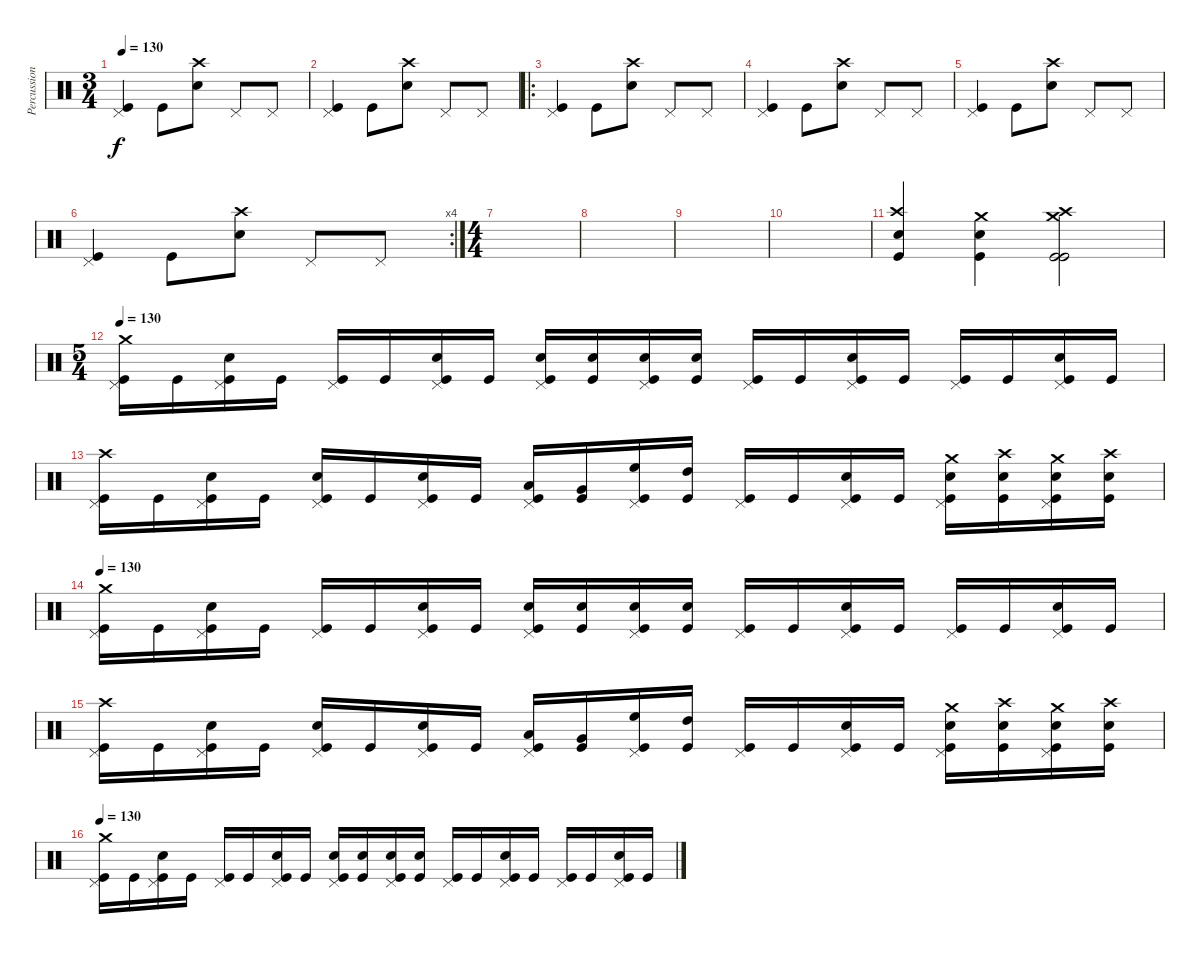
\track ("Percussion" "Percussion") {instrument percussion}
\staff {score}
\articulation defaults
\ts (3 4)
\tempo 130
\clef neutral
\ks c
("Pedal Hi-Hat (hit)" "Kick (hit)").4{dy f} "Kick (hit)".8 ("Crash high (hit)" "Snare (hit) 2").8 "Pedal Hi-Hat (hit)".8 "Pedal Hi-Hat (hit)".8 |
("Pedal Hi-Hat (hit)" "Kick (hit)").4 "Kick (hit)".8 ("Crash high (hit)" "Snare (hit) 2").8 "Pedal Hi-Hat (hit)".8 "Pedal Hi-Hat (hit)".8 |
\ro
("Pedal Hi-Hat (hit)" "Kick (hit)").4 "Kick (hit)".8 ("Crash high (hit)" "Snare (hit) 2").8 "Pedal Hi-Hat (hit)".8 "Pedal Hi-Hat (hit)".8 |
("Pedal Hi-Hat (hit)" "Kick (hit)").4 "Kick (hit)".8 ("Crash high (hit)" "Snare (hit) 2").8 "Pedal Hi-Hat (hit)".8 "Pedal Hi-Hat (hit)".8 |
("Pedal Hi-Hat (hit)" "Kick (hit)").4 "Kick (hit)".8 ("Crash high (hit)" "Snare (hit) 2").8 "Pedal Hi-Hat (hit)".8 "Pedal Hi-Hat (hit)".8 |
\rc 4
("Pedal Hi-Hat (hit)" "Kick (hit)").4 "Kick (hit)".8 ("Crash high (hit)" "Snare (hit) 2").8 "Pedal Hi-Hat (hit)".8 "Pedal Hi-Hat (hit)".8 |
\ts (4 4)
|
|
|
|
("Crash high (hit)" "Snare (hit) 2" "Kick (hit)").4 ("Crash medium (hit)" "Snare (hit) 2" "Kick (hit)").4 ("Crash medium (hit)" "Crash high (hit)" "Kick (hit)" "Kick (hit)").2 |
\ts (5 4)
\tempo 130
("Pedal Hi-Hat (hit)" "Crash medium (hit)" "Kick (hit)").16 "Kick (hit)".16 ("Pedal Hi-Hat (hit)" "Snare (hit) 2" "Kick (hit)").16 "Kick (hit)".16 ("Pedal Hi-Hat (hit)" "Kick (hit)").16 "Kick (hit)".16 ("Pedal Hi-Hat (hit)" "Snare (hit) 2" "Kick (hit)").16 "Kick (hit)".16 ("Pedal Hi-Hat (hit)" "Snare (hit) 2" "Kick (hit)").16 ("Snare (hit) 2" "Kick (hit)").16 ("Pedal Hi-Hat (hit)" "Snare (hit) 2" "Kick (hit)").16 ("Snare (hit) 2" "Kick (hit)").16 ("Pedal Hi-Hat (hit)" "Kick (hit)").16 "Kick (hit)".16 ("Pedal Hi-Hat (hit)" "Snare (hit) 2" "Kick (hit)").16 "Kick (hit)".16 ("Pedal Hi-Hat (hit)" "Kick (hit)").16 "Kick (hit)".16 ("Pedal Hi-Hat (hit)" "Snare (hit) 2" "Kick (hit)").16 "Kick (hit)".16 |
("Crash high (hit)" "Pedal Hi-Hat (hit)" "Kick (hit)").16 "Kick (hit)".16 ("Snare (hit) 2" "Pedal Hi-Hat (hit)" "Kick (hit)").16 "Kick (hit)".16 ("Snare (hit) 2" "Pedal Hi-Hat (hit)" "Kick (hit)").16 "Kick (hit)".16 ("Snare (hit) 2" "Pedal Hi-Hat (hit)" "Kick (hit)").16 "Kick (hit)".16 ("Low Floor Tom (hit)" "Pedal Hi-Hat (hit)" "Kick (hit)").16 ("Very Low Tom (hit)" "Kick (hit)").16 ("High Floor Tom (hit)" "Pedal Hi-Hat (hit)" "Kick (hit)").16 ("High Tom (hit)" "Kick (hit)").16 ("Pedal Hi-Hat (hit)" "Kick (hit)").16 "Kick (hit)".16 ("Snare (hit) 2" "Pedal Hi-Hat (hit)" "Kick (hit)").16 "Kick (hit)".16 ("Crash medium (hit)" "Snare (hit) 2" "Pedal Hi-Hat (hit)" "Kick (hit)").16 ("Crash high (hit)" "Snare (hit) 2" "Kick (hit)").16 ("Crash medium (hit)" "Snare (hit) 2" "Pedal Hi-Hat (hit)" "Kick (hit)").16 ("Crash high (hit)" "Snare (hit) 2" "Kick (hit)").16 |
\tempo 130
("Pedal Hi-Hat (hit)" "Crash medium (hit)" "Kick (hit)").16 "Kick (hit)".16 ("Pedal Hi-Hat (hit)" "Snare (hit) 2" "Kick (hit)").16 "Kick (hit)".16 ("Pedal Hi-Hat (hit)" "Kick (hit)").16 "Kick (hit)".16 ("Pedal Hi-Hat (hit)" "Snare (hit) 2" "Kick (hit)").16 "Kick (hit)".16 ("Pedal Hi-Hat (hit)" "Snare (hit) 2" "Kick (hit)").16 ("Snare (hit) 2" "Kick (hit)").16 ("Pedal Hi-Hat (hit)" "Snare (hit) 2" "Kick (hit)").16 ("Snare (hit) 2" "Kick (hit)").16 ("Pedal Hi-Hat (hit)" "Kick (hit)").16 "Kick (hit)".16 ("Pedal Hi-Hat (hit)" "Snare (hit) 2" "Kick (hit)").16 "Kick (hit)".16 ("Pedal Hi-Hat (hit)" "Kick (hit)").16 "Kick (hit)".16 ("Pedal Hi-Hat (hit)" "Snare (hit) 2" "Kick (hit)").16 "Kick (hit)".16 |
("Crash high (hit)" "Pedal Hi-Hat (hit)" "Kick (hit)").16 "Kick (hit)".16 ("Snare (hit) 2" "Pedal Hi-Hat (hit)" "Kick (hit)").16 "Kick (hit)".16 ("Snare (hit) 2" "Pedal Hi-Hat (hit)" "Kick (hit)").16 "Kick (hit)".16 ("Snare (hit) 2" "Pedal Hi-Hat (hit)" "Kick (hit)").16 "Kick (hit)".16 ("Low Floor Tom (hit)" "Pedal Hi-Hat (hit)" "Kick (hit)").16 ("Very Low Tom (hit)" "Kick (hit)").16 ("High Floor Tom (hit)" "Pedal Hi-Hat (hit)" "Kick (hit)").16 ("High Tom (hit)" "Kick (hit)").16 ("Pedal Hi-Hat (hit)" "Kick (hit)").16 "Kick (hit)".16 ("Snare (hit) 2" "Pedal Hi-Hat (hit)" "Kick (hit)").16 "Kick (hit)".16 ("Crash medium (hit)" "Snare (hit) 2" "Pedal Hi-Hat (hit)" "Kick (hit)").16 ("Crash high (hit)" "Snare (hit) 2" "Kick (hit)").16 ("Crash medium (hit)" "Snare (hit) 2" "Pedal Hi-Hat (hit)" "Kick (hit)").16 ("Crash high (hit)" "Snare (hit) 2" "Kick (hit)").16 |
\tempo 130
("Pedal Hi-Hat (hit)" "Crash medium (hit)" "Kick (hit)").16 "Kick (hit)".16 ("Pedal Hi-Hat (hit)" "Snare (hit) 2" "Kick (hit)").16 "Kick (hit)".16 ("Pedal Hi-Hat (hit)" "Kick (hit)").16 "Kick (hit)".16 ("Pedal Hi-Hat (hit)" "Snare (hit) 2" "Kick (hit)").16 "Kick (hit)".16 ("Pedal Hi-Hat (hit)" "Snare (hit) 2" "Kick (hit)").16 ("Snare (hit) 2" "Kick (hit)").16 ("Pedal Hi-Hat (hit)" "Snare (hit) 2" "Kick (hit)").16 ("Snare (hit) 2" "Kick (hit)").16 ("Pedal Hi-Hat (hit)" "Kick (hit)").16 "Kick (hit)".16 ("Pedal Hi-Hat (hit)" "Snare (hit) 2" "Kick (hit)").16 "Kick (hit)".16 ("Pedal Hi-Hat (hit)" "Kick (hit)").16 "Kick (hit)".16 ("Pedal Hi-Hat (hit)" "Snare (hit) 2" "Kick (hit)").16 "Kick (hit)".16
